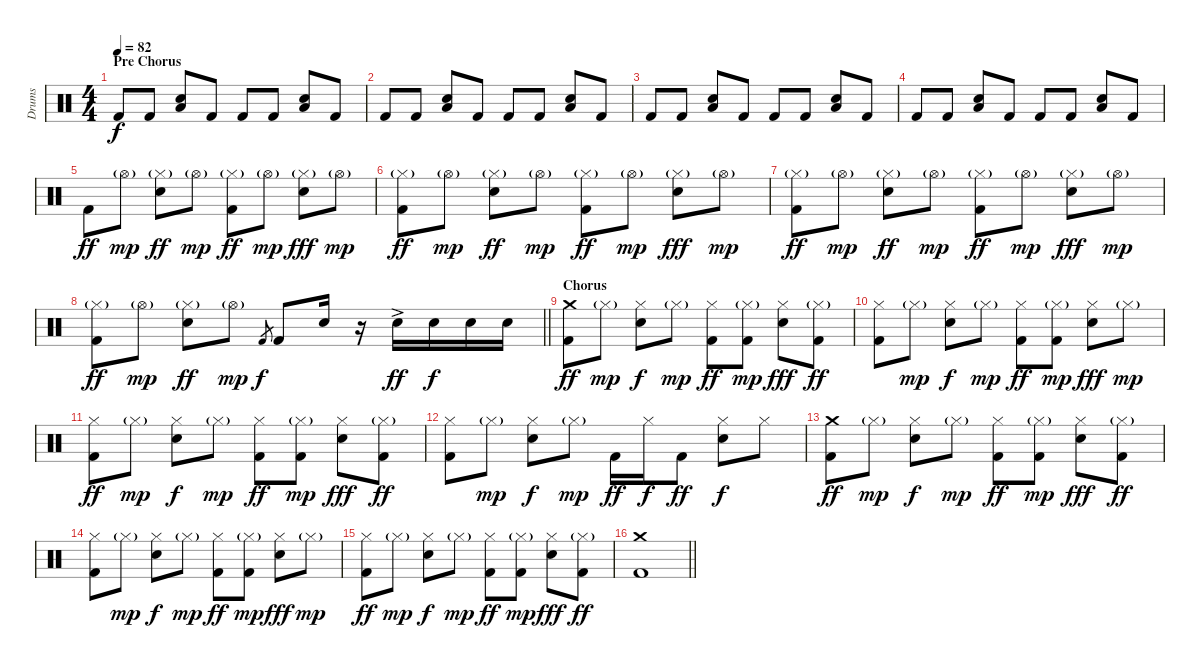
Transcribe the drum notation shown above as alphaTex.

\track ("Drums" "Drums") {instrument percussion}
\staff {score}
\articulation defaults
\ts (4 4)
\section ("" "Pre Chorus")
\tempo 82
\clef neutral
\ks c "Kick (hit) 2".8{dy f} "Kick (hit) 2".8
("Hand Clap (hit)" "Low Floor Tom (hit)").8 "Kick (hit) 2".8 "Kick (hit) 2".8 "Kick (hit) 2".8 ("Hand Clap (hit)" "Low Floor Tom (hit)").8 "Kick (hit) 2".8 |
"Kick (hit) 2".8 "Kick (hit) 2".8 ("Hand Clap (hit)" "Low Floor Tom (hit)").8 "Kick (hit) 2".8 "Kick (hit) 2".8 "Kick (hit) 2".8 ("Hand Clap (hit)" "Low Floor Tom (hit)").8 "Kick (hit) 2".8 |
"Kick (hit) 2".8 "Kick (hit) 2".8 ("Hand Clap (hit)" "Low Floor Tom (hit)").8 "Kick (hit) 2".8 "Kick (hit) 2".8 "Kick (hit) 2".8 ("Hand Clap (hit)" "Low Floor Tom (hit)").8 "Kick (hit) 2".8 |
"Kick (hit) 2".8 "Kick (hit) 2".8 ("Hand Clap (hit)" "Low Floor Tom (hit)").8 "Kick (hit) 2".8 "Kick (hit) 2".8 "Kick (hit) 2".8 ("Hand Clap (hit)" "Low Floor Tom (hit)").8 "Kick (hit) 2".8 |
"Kick (hit) 2".8{dy ff} "Hi-Hat (open)"{g}.8{dy mp} ("Hi-Hat (closed)"{g} "Electric Snare (hit)").8{dy ff} "Hi-Hat (open)"{g}.8{dy mp} ("Hi-Hat (closed)"{g} "Kick (hit) 2").8{dy ff} "Hi-Hat (open)"{g}.8{dy mp} ("Hi-Hat (closed)"{g} "Electric Snare (hit)").8{dy fff} "Hi-Hat (open)"{g}.8{dy mp} |
("Hi-Hat (closed)"{g} "Kick (hit) 2").8{dy ff} "Hi-Hat (open)"{g}.8{dy mp} ("Hi-Hat (closed)"{g} "Electric Snare (hit)").8{dy ff} "Hi-Hat (open)"{g}.8{dy mp} ("Hi-Hat (closed)"{g} "Kick (hit) 2").8{dy ff} "Hi-Hat (open)"{g}.8{dy mp} ("Hi-Hat (closed)"{g} "Electric Snare (hit)").8{dy fff} "Hi-Hat (open)"{g}.8{dy mp} |
("Hi-Hat (closed)"{g} "Kick (hit) 2").8{dy ff} "Hi-Hat (open)"{g}.8{dy mp} ("Hi-Hat (closed)"{g} "Electric Snare (hit)").8{dy ff} "Hi-Hat (open)"{g}.8{dy mp} ("Hi-Hat (closed)"{g} "Kick (hit) 2").8{dy ff} "Hi-Hat (open)"{g}.8{dy mp} ("Hi-Hat (closed)"{g} "Electric Snare (hit)").8{dy fff} "Hi-Hat (open)"{g}.8{dy mp} |
\barLineRight lightlight
("Hi-Hat (closed)"{g} "Kick (hit) 2").8{dy ff} "Hi-Hat (open)"{g}.8{dy mp} ("Hi-Hat (closed)"{g} "Electric Snare (hit)").8{dy ff} "Hi-Hat (open)"{g}.8{dy mp} "Kick (hit) 2".8{gr dy f} "Kick (hit) 2".8 "Electric Snare (hit)".16 r.16 "Electric Snare (hit)"{ac}.16{dy ff} "Electric Snare (hit)".16{dy f} "Electric Snare (hit)".16 "Electric Snare (hit)".16 |
\section ("" "Chorus")
("Crash medium (hit)" "Kick (hit) 2").8{dy ff} "Hi-Hat (closed)"{g}.8{dy mp} ("Hi-Hat (closed)" "Electric Snare (hit)").8{dy f} "Hi-Hat (closed)"{g}.8{dy mp} ("Hi-Hat (closed)" "Kick (hit) 2").8{dy ff} ("Hi-Hat (closed)"{g} "Kick (hit) 2").8{dy mp} ("Hi-Hat (closed)" "Electric Snare (hit)").8{dy fff} ("Hi-Hat (closed)"{g} "Kick (hit) 2").8{dy ff} |
("Hi-Hat (closed)" "Kick (hit) 2").8 "Hi-Hat (closed)"{g}.8{dy mp} ("Hi-Hat (closed)" "Electric Snare (hit)").8{dy f} "Hi-Hat (closed)"{g}.8{dy mp} ("Hi-Hat (closed)" "Kick (hit) 2").8{dy ff} ("Hi-Hat (closed)"{g} "Kick (hit) 2").8{dy mp} ("Hi-Hat (closed)" "Electric Snare (hit)").8{dy fff} "Hi-Hat (closed)"{g}.8{dy mp} |
("Hi-Hat (closed)" "Kick (hit) 2").8{dy ff} "Hi-Hat (closed)"{g}.8{dy mp} ("Hi-Hat (closed)" "Electric Snare (hit)").8{dy f} "Hi-Hat (closed)"{g}.8{dy mp} ("Hi-Hat (closed)" "Kick (hit) 2").8{dy ff} ("Hi-Hat (closed)"{g} "Kick (hit) 2").8{dy mp} ("Hi-Hat (closed)" "Electric Snare (hit)").8{dy fff} ("Hi-Hat (closed)"{g} "Kick (hit) 2").8{dy ff} |
("Hi-Hat (closed)" "Kick (hit) 2").8 "Hi-Hat (closed)"{g}.8{dy mp} ("Hi-Hat (closed)" "Electric Snare (hit)").8{dy f} "Hi-Hat (closed)"{g}.8{dy mp} "Kick (hit) 2".16{dy ff} "Hi-Hat (closed)".16{dy f} "Kick (hit) 2".8{dy ff} ("Hi-Hat (closed)" "Electric Snare (hit)").8{dy f} "Hi-Hat (closed)".8 |
("Crash medium (hit)" "Kick (hit) 2").8{dy ff} "Hi-Hat (closed)"{g}.8{dy mp} ("Hi-Hat (closed)" "Electric Snare (hit)").8{dy f} "Hi-Hat (closed)"{g}.8{dy mp} ("Hi-Hat (closed)" "Kick (hit) 2").8{dy ff} ("Hi-Hat (closed)"{g} "Kick (hit) 2").8{dy mp} ("Hi-Hat (closed)" "Electric Snare (hit)").8{dy fff} ("Hi-Hat (closed)"{g} "Kick (hit) 2").8{dy ff} |
("Hi-Hat (closed)" "Kick (hit) 2").8 "Hi-Hat (closed)"{g}.8{dy mp} ("Hi-Hat (closed)" "Electric Snare (hit)").8{dy f} "Hi-Hat (closed)"{g}.8{dy mp} ("Hi-Hat (closed)" "Kick (hit) 2").8{dy ff} ("Hi-Hat (closed)"{g} "Kick (hit) 2").8{dy mp} ("Hi-Hat (closed)" "Electric Snare (hit)").8{dy fff} "Hi-Hat (closed)"{g}.8{dy mp} |
("Hi-Hat (closed)" "Kick (hit) 2").8{dy ff} "Hi-Hat (closed)"{g}.8{dy mp} ("Hi-Hat (closed)" "Electric Snare (hit)").8{dy f} "Hi-Hat (closed)"{g}.8{dy mp} ("Hi-Hat (closed)" "Kick (hit) 2").8{dy ff} ("Hi-Hat (closed)"{g} "Kick (hit) 2").8{dy mp} ("Hi-Hat (closed)" "Electric Snare (hit)").8{dy fff} ("Hi-Hat (closed)"{g} "Kick (hit) 2").8{dy ff} |
\barLineRight lightlight
("Crash medium (hit)" "Kick (hit) 2").1
